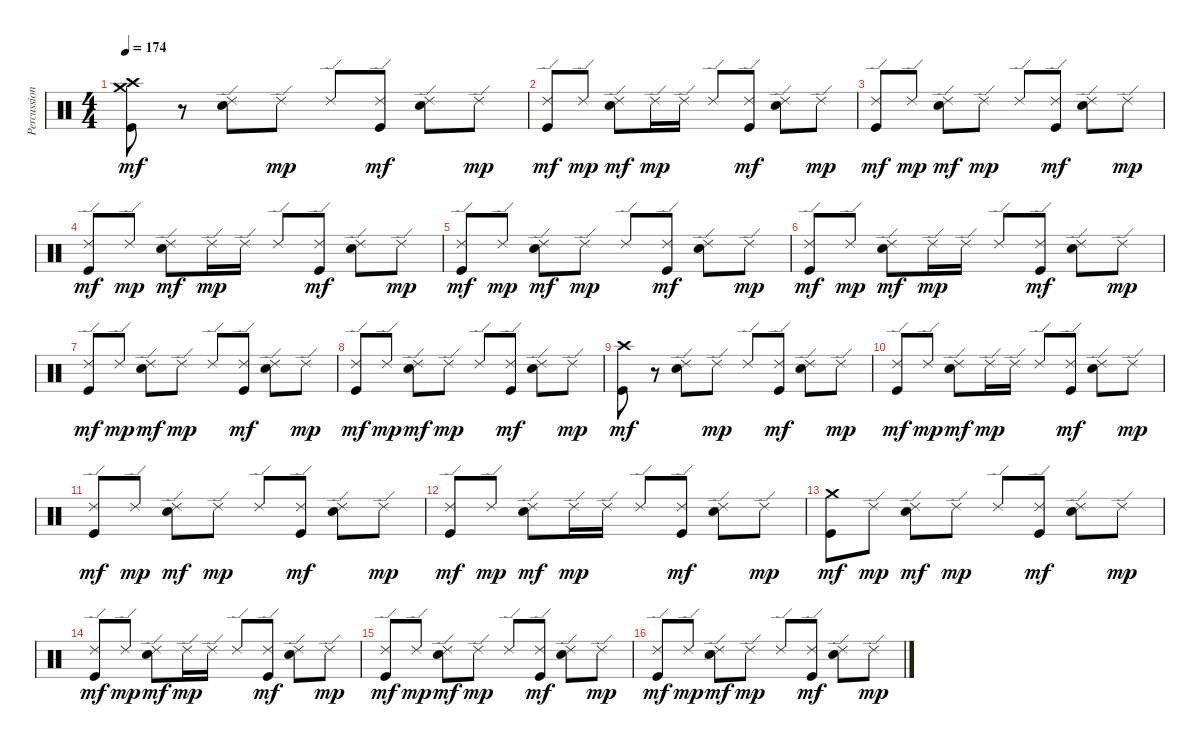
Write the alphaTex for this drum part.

\track ("Percussion" "Percussion") {instrument percussion}
\staff {score}
\articulation defaults
\ts (4 4)
\tempo 174
\clef neutral
\ks c
("Crash high (hit)" "Crash medium (hit)" "Kick (hit)").8{dy mf} r.8 ("Ride (edge) 2" "Electric Snare (hit)").8 "Ride (edge) 2".8{dy mp} "Ride (edge) 2".8 ("Ride (edge) 2" "Kick (hit)").8{dy mf} ("Ride (edge) 2" "Electric Snare (hit)").8 "Ride (edge) 2".8{dy mp} |
("Ride (edge) 2" "Kick (hit)").8{dy mf} "Ride (edge) 2".8{dy mp} ("Ride (edge) 2" "Electric Snare (hit)").8{dy mf} "Ride (edge) 2".16{dy mp} "Ride (edge) 2".16 "Ride (edge) 2".8 ("Ride (edge) 2" "Kick (hit)").8{dy mf} ("Ride (edge) 2" "Electric Snare (hit)").8 "Ride (edge) 2".8{dy mp} |
("Ride (edge) 2" "Kick (hit)").8{dy mf} "Ride (edge) 2".8{dy mp} ("Ride (edge) 2" "Electric Snare (hit)").8{dy mf} "Ride (edge) 2".8{dy mp} "Ride (edge) 2".8 ("Ride (edge) 2" "Kick (hit)").8{dy mf} ("Ride (edge) 2" "Electric Snare (hit)").8 "Ride (edge) 2".8{dy mp} |
("Ride (edge) 2" "Kick (hit)").8{dy mf} "Ride (edge) 2".8{dy mp} ("Ride (edge) 2" "Electric Snare (hit)").8{dy mf} "Ride (edge) 2".16{dy mp} "Ride (edge) 2".16 "Ride (edge) 2".8 ("Ride (edge) 2" "Kick (hit)").8{dy mf} ("Ride (edge) 2" "Electric Snare (hit)").8 "Ride (edge) 2".8{dy mp} |
("Ride (edge) 2" "Kick (hit)").8{dy mf} "Ride (edge) 2".8{dy mp} ("Ride (edge) 2" "Electric Snare (hit)").8{dy mf} "Ride (edge) 2".8{dy mp} "Ride (edge) 2".8 ("Ride (edge) 2" "Kick (hit)").8{dy mf} ("Ride (edge) 2" "Electric Snare (hit)").8 "Ride (edge) 2".8{dy mp} |
("Ride (edge) 2" "Kick (hit)").8{dy mf} "Ride (edge) 2".8{dy mp} ("Ride (edge) 2" "Electric Snare (hit)").8{dy mf} "Ride (edge) 2".16{dy mp} "Ride (edge) 2".16 "Ride (edge) 2".8 ("Ride (edge) 2" "Kick (hit)").8{dy mf} ("Ride (edge) 2" "Electric Snare (hit)").8 "Ride (edge) 2".8{dy mp} |
("Ride (edge) 2" "Kick (hit)").8{dy mf} "Ride (edge) 2".8{dy mp} ("Ride (edge) 2" "Electric Snare (hit)").8{dy mf} "Ride (edge) 2".8{dy mp} "Ride (edge) 2".8 ("Ride (edge) 2" "Kick (hit)").8{dy mf} ("Ride (edge) 2" "Electric Snare (hit)").8 "Ride (edge) 2".8{dy mp} |
("Ride (edge) 2" "Kick (hit)").8{dy mf} "Ride (edge) 2".8{dy mp} ("Ride (edge) 2" "Electric Snare (hit)").8{dy mf} "Ride (edge) 2".8{dy mp} "Ride (edge) 2".8 ("Ride (edge) 2" "Kick (hit)").8{dy mf} ("Ride (edge) 2" "Electric Snare (hit)").8 "Ride (edge) 2".8{dy mp} |
("Crash high (hit)" "Kick (hit)").8{dy mf} r.8 ("Ride (edge) 2" "Electric Snare (hit)").8 "Ride (edge) 2".8{dy mp} "Ride (edge) 2".8 ("Ride (edge) 2" "Kick (hit)").8{dy mf} ("Ride (edge) 2" "Electric Snare (hit)").8 "Ride (edge) 2".8{dy mp} |
("Ride (edge) 2" "Kick (hit)").8{dy mf} "Ride (edge) 2".8{dy mp} ("Ride (edge) 2" "Electric Snare (hit)").8{dy mf} "Ride (edge) 2".16{dy mp} "Ride (edge) 2".16 "Ride (edge) 2".8 ("Ride (edge) 2" "Kick (hit)").8{dy mf} ("Ride (edge) 2" "Electric Snare (hit)").8 "Ride (edge) 2".8{dy mp} |
("Ride (edge) 2" "Kick (hit)").8{dy mf} "Ride (edge) 2".8{dy mp} ("Ride (edge) 2" "Electric Snare (hit)").8{dy mf} "Ride (edge) 2".8{dy mp} "Ride (edge) 2".8 ("Ride (edge) 2" "Kick (hit)").8{dy mf} ("Ride (edge) 2" "Electric Snare (hit)").8 "Ride (edge) 2".8{dy mp} |
("Ride (edge) 2" "Kick (hit)").8{dy mf} "Ride (edge) 2".8{dy mp} ("Ride (edge) 2" "Electric Snare (hit)").8{dy mf} "Ride (edge) 2".16{dy mp} "Ride (edge) 2".16 "Ride (edge) 2".8 ("Ride (edge) 2" "Kick (hit)").8{dy mf} ("Ride (edge) 2" "Electric Snare (hit)").8 "Ride (edge) 2".8{dy mp} |
("Crash medium (hit)" "Kick (hit)").8{dy mf} "Ride (edge) 2".8{dy mp} ("Ride (edge) 2" "Electric Snare (hit)").8{dy mf} "Ride (edge) 2".8{dy mp} "Ride (edge) 2".8 ("Ride (edge) 2" "Kick (hit)").8{dy mf} ("Ride (edge) 2" "Electric Snare (hit)").8 "Ride (edge) 2".8{dy mp} |
("Ride (edge) 2" "Kick (hit)").8{dy mf} "Ride (edge) 2".8{dy mp} ("Ride (edge) 2" "Electric Snare (hit)").8{dy mf} "Ride (edge) 2".16{dy mp} "Ride (edge) 2".16 "Ride (edge) 2".8 ("Ride (edge) 2" "Kick (hit)").8{dy mf} ("Ride (edge) 2" "Electric Snare (hit)").8 "Ride (edge) 2".8{dy mp} |
("Ride (edge) 2" "Kick (hit)").8{dy mf} "Ride (edge) 2".8{dy mp} ("Ride (edge) 2" "Electric Snare (hit)").8{dy mf} "Ride (edge) 2".8{dy mp} "Ride (edge) 2".8 ("Ride (edge) 2" "Kick (hit)").8{dy mf} ("Ride (edge) 2" "Electric Snare (hit)").8 "Ride (edge) 2".8{dy mp} |
("Ride (edge) 2" "Kick (hit)").8{dy mf} "Ride (edge) 2".8{dy mp} ("Ride (edge) 2" "Electric Snare (hit)").8{dy mf} "Ride (edge) 2".8{dy mp} "Ride (edge) 2".8 ("Ride (edge) 2" "Kick (hit)").8{dy mf} ("Ride (edge) 2" "Electric Snare (hit)").8 "Ride (edge) 2".8{dy mp}
